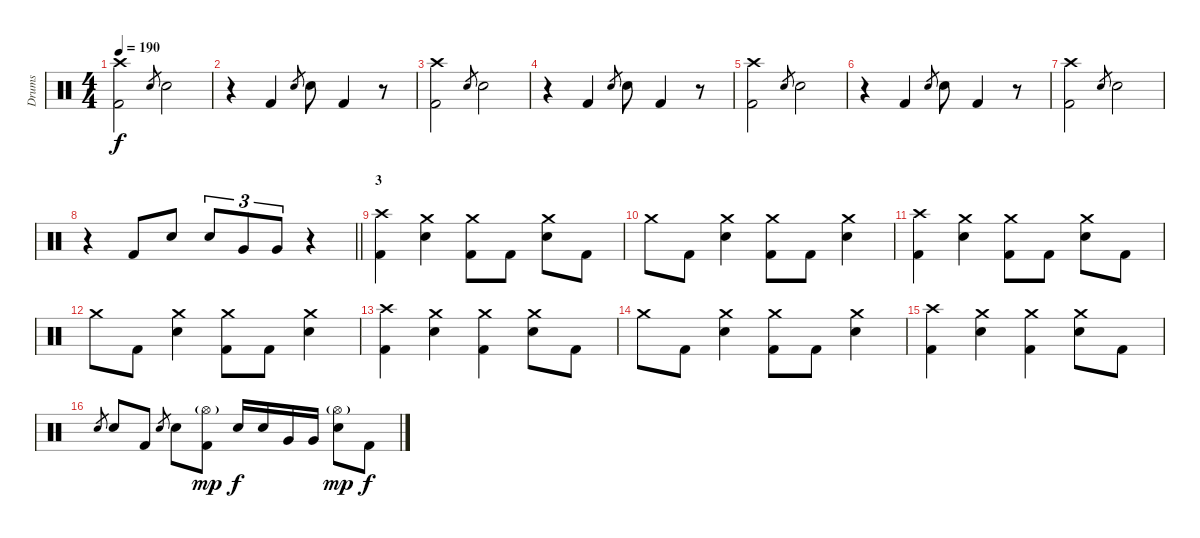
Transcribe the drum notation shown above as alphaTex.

\track ("Drums" "Drums") {instrument percussion}
\staff {score}
\articulation defaults
\ts (4 4)
\tempo 190
\clef neutral
\ks c
("Crash high (hit)" "Kick (hit) 2").2{dy f} "Electric Snare (hit)".8{gr} "Electric Snare (hit)".2 |
r.4 "Kick (hit) 2".4 "Electric Snare (hit)".8{gr} "Electric Snare (hit)".8 "Kick (hit) 2".4 r.8 |
("Crash high (hit)" "Kick (hit) 2").2 "Electric Snare (hit)".8{gr} "Electric Snare (hit)".2 |
r.4 "Kick (hit) 2".4 "Electric Snare (hit)".8{gr} "Electric Snare (hit)".8 "Kick (hit) 2".4 r.8 |
("Crash high (hit)" "Kick (hit) 2").2 "Electric Snare (hit)".8{gr} "Electric Snare (hit)".2 |
r.4 "Kick (hit) 2".4 "Electric Snare (hit)".8{gr} "Electric Snare (hit)".8 "Kick (hit) 2".4 r.8 |
("Crash high (hit)" "Kick (hit) 2").2 "Electric Snare (hit)".8{gr} "Electric Snare (hit)".2 |
\barLineRight lightlight
r.4 "Kick (hit) 2".8 "Electric Snare (hit)".8 "Electric Snare (hit)".8{tu (3 2)} "Very Low Tom (hit)".8{tu (3 2)} "Very Low Tom (hit)".8{tu (3 2)} r.4 |
\section ("" "3")
("Crash high (hit)" "Kick (hit) 2").4 ("Crash medium (hit)" "Electric Snare (hit)").4 ("Crash medium (hit)" "Kick (hit) 2").8 "Kick (hit) 2".8 ("Crash medium (hit)" "Electric Snare (hit)").8 "Kick (hit) 2".8 |
"Crash medium (hit)".8 "Kick (hit) 2".8 ("Crash medium (hit)" "Electric Snare (hit)").4 ("Crash medium (hit)" "Kick (hit) 2").8 "Kick (hit) 2".8 ("Crash medium (hit)" "Electric Snare (hit)").4 |
("Crash high (hit)" "Kick (hit) 2").4 ("Crash medium (hit)" "Electric Snare (hit)").4 ("Crash medium (hit)" "Kick (hit) 2").8 "Kick (hit) 2".8 ("Crash medium (hit)" "Electric Snare (hit)").8 "Kick (hit) 2".8 |
"Crash medium (hit)".8 "Kick (hit) 2".8 ("Crash medium (hit)" "Electric Snare (hit)").4 ("Crash medium (hit)" "Kick (hit) 2").8 "Kick (hit) 2".8 ("Crash medium (hit)" "Electric Snare (hit)").4 |
("Crash high (hit)" "Kick (hit) 2").4 ("Crash medium (hit)" "Electric Snare (hit)").4 ("Crash medium (hit)" "Kick (hit) 2").4 ("Crash medium (hit)" "Electric Snare (hit)").8 "Kick (hit) 2".8 |
"Crash medium (hit)".8 "Kick (hit) 2".8 ("Crash medium (hit)" "Electric Snare (hit)").4 ("Crash medium (hit)" "Kick (hit) 2").8 "Kick (hit) 2".8 ("Crash medium (hit)" "Electric Snare (hit)").4 |
("Crash high (hit)" "Kick (hit) 2").4 ("Crash medium (hit)" "Electric Snare (hit)").4 ("Crash medium (hit)" "Kick (hit) 2").4 ("Crash medium (hit)" "Electric Snare (hit)").8 "Kick (hit) 2".8 |
"Electric Snare (hit)".8{gr} "Electric Snare (hit)".8 "Kick (hit) 2".8 "Electric Snare (hit)".8{gr} "Electric Snare (hit)".8 ("Hi-Hat (open)"{g} "Kick (hit) 2").8{dy mp} "Electric Snare (hit)".16{dy f} "Electric Snare (hit)".16 "Very Low Tom (hit)".16 "Very Low Tom (hit)".16 ("Hi-Hat (open)"{g} "Electric Snare (hit)").8{dy mp} "Kick (hit) 2".8{dy f}
